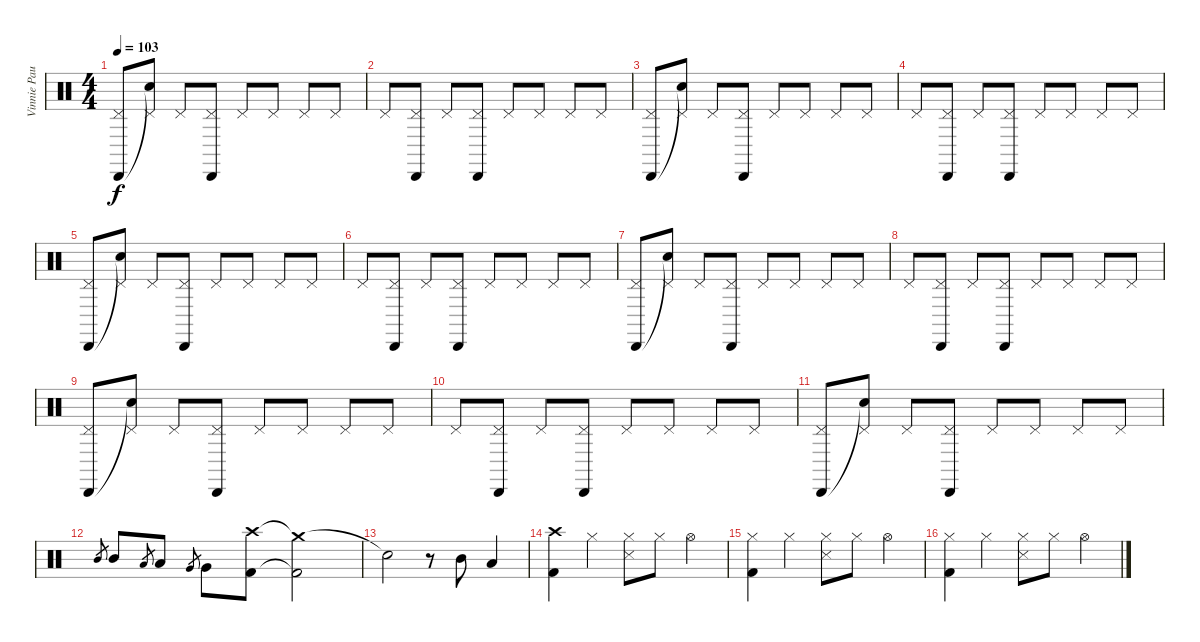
\track ("Vinnie Paul" "Vinnie Pau") {instrument percussion}
\staff {score}
\articulation defaults
\ts (4 4)
\tempo 103
\clef neutral
\ks c
("Pedal Hi-Hat (hit)" "Cabasa (hit)").8{dy f} ("Pedal Hi-Hat (hit)" "Snare (hit)"{t}).8 "Pedal Hi-Hat (hit)".8 ("Pedal Hi-Hat (hit)" "Cabasa (hit)").8 "Pedal Hi-Hat (hit)".8 "Pedal Hi-Hat (hit)".8 "Pedal Hi-Hat (hit)".8 "Pedal Hi-Hat (hit)".8 |
"Pedal Hi-Hat (hit)".8 ("Pedal Hi-Hat (hit)" "Cabasa (hit)").8 "Pedal Hi-Hat (hit)".8 ("Pedal Hi-Hat (hit)" "Cabasa (hit)").8 "Pedal Hi-Hat (hit)".8 "Pedal Hi-Hat (hit)".8 "Pedal Hi-Hat (hit)".8 "Pedal Hi-Hat (hit)".8 |
("Pedal Hi-Hat (hit)" "Cabasa (hit)").8 ("Pedal Hi-Hat (hit)" "Snare (hit)"{t}).8 "Pedal Hi-Hat (hit)".8 ("Pedal Hi-Hat (hit)" "Cabasa (hit)").8 "Pedal Hi-Hat (hit)".8 "Pedal Hi-Hat (hit)".8 "Pedal Hi-Hat (hit)".8 "Pedal Hi-Hat (hit)".8 |
"Pedal Hi-Hat (hit)".8 ("Pedal Hi-Hat (hit)" "Cabasa (hit)").8 "Pedal Hi-Hat (hit)".8 ("Pedal Hi-Hat (hit)" "Cabasa (hit)").8 "Pedal Hi-Hat (hit)".8 "Pedal Hi-Hat (hit)".8 "Pedal Hi-Hat (hit)".8 "Pedal Hi-Hat (hit)".8 |
("Pedal Hi-Hat (hit)" "Cabasa (hit)").8 ("Pedal Hi-Hat (hit)" "Snare (hit)"{t}).8 "Pedal Hi-Hat (hit)".8 ("Pedal Hi-Hat (hit)" "Cabasa (hit)").8 "Pedal Hi-Hat (hit)".8 "Pedal Hi-Hat (hit)".8 "Pedal Hi-Hat (hit)".8 "Pedal Hi-Hat (hit)".8 |
"Pedal Hi-Hat (hit)".8 ("Pedal Hi-Hat (hit)" "Cabasa (hit)").8 "Pedal Hi-Hat (hit)".8 ("Pedal Hi-Hat (hit)" "Cabasa (hit)").8 "Pedal Hi-Hat (hit)".8 "Pedal Hi-Hat (hit)".8 "Pedal Hi-Hat (hit)".8 "Pedal Hi-Hat (hit)".8 |
("Pedal Hi-Hat (hit)" "Cabasa (hit)").8 ("Pedal Hi-Hat (hit)" "Snare (hit)"{t}).8 "Pedal Hi-Hat (hit)".8 ("Pedal Hi-Hat (hit)" "Cabasa (hit)").8 "Pedal Hi-Hat (hit)".8 "Pedal Hi-Hat (hit)".8 "Pedal Hi-Hat (hit)".8 "Pedal Hi-Hat (hit)".8 |
"Pedal Hi-Hat (hit)".8 ("Pedal Hi-Hat (hit)" "Cabasa (hit)").8 "Pedal Hi-Hat (hit)".8 ("Pedal Hi-Hat (hit)" "Cabasa (hit)").8 "Pedal Hi-Hat (hit)".8 "Pedal Hi-Hat (hit)".8 "Pedal Hi-Hat (hit)".8 "Pedal Hi-Hat (hit)".8 |
("Pedal Hi-Hat (hit)" "Cabasa (hit)").8 ("Pedal Hi-Hat (hit)" "Snare (hit)"{t}).8 "Pedal Hi-Hat (hit)".8 ("Pedal Hi-Hat (hit)" "Cabasa (hit)").8 "Pedal Hi-Hat (hit)".8 "Pedal Hi-Hat (hit)".8 "Pedal Hi-Hat (hit)".8 "Pedal Hi-Hat (hit)".8 |
"Pedal Hi-Hat (hit)".8 ("Pedal Hi-Hat (hit)" "Cabasa (hit)").8 "Pedal Hi-Hat (hit)".8 ("Pedal Hi-Hat (hit)" "Cabasa (hit)").8 "Pedal Hi-Hat (hit)".8 "Pedal Hi-Hat (hit)".8 "Pedal Hi-Hat (hit)".8 "Pedal Hi-Hat (hit)".8 |
("Pedal Hi-Hat (hit)" "Cabasa (hit)").8 ("Pedal Hi-Hat (hit)" "Snare (hit)"{t}).8 "Pedal Hi-Hat (hit)".8 ("Pedal Hi-Hat (hit)" "Cabasa (hit)").8 "Pedal Hi-Hat (hit)".8 "Pedal Hi-Hat (hit)".8 "Pedal Hi-Hat (hit)".8 "Pedal Hi-Hat (hit)".8 |
"Mid Tom (hit)".8{gr} "Mid Tom (hit)".8 "Low Tom (hit)".8{gr} "Low Tom (hit)".8 "Very Low Tom (hit)".8{gr} "Very Low Tom (hit)".8 ("Crash high (hit)" "Kick (hit) 2").8 ("Crash medium (hit)"{t} "Kick (hit) 2"{t}).2 |
"Snare (hit)"{t}.2 r.8 "Mid Tom (hit)".8 "Low Tom (hit)".4 |
("Crash high (hit)" "Kick (hit) 2").4 "Hi-Hat (closed)".4 ("Hi-Hat (closed)" "Snare (side stick) 3").8 "Hi-Hat (closed)".8 "Hi-Hat (open)".4 |
("Hi-Hat (closed)" "Kick (hit) 2").4 "Hi-Hat (closed)".4 ("Hi-Hat (closed)" "Snare (side stick) 3").8 "Hi-Hat (closed)".8 "Hi-Hat (open)".4 |
("Hi-Hat (closed)" "Kick (hit) 2").4 "Hi-Hat (closed)".4 ("Hi-Hat (closed)" "Snare (side stick) 3").8 "Hi-Hat (closed)".8 "Hi-Hat (open)".4
